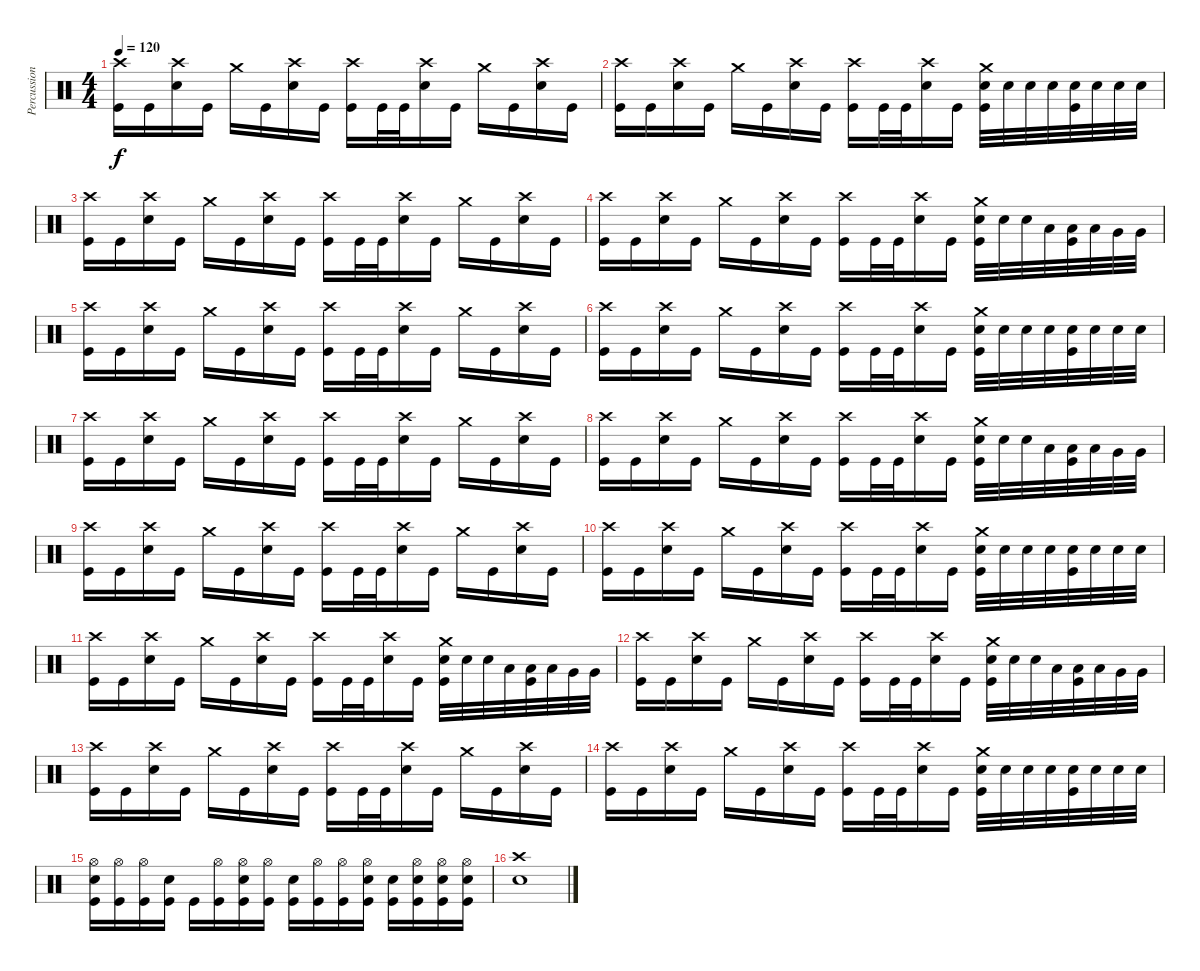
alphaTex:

\track ("Percussions" "Percussion") {instrument percussion}
\staff {score}
\articulation defaults
\ts (4 4)
\tempo 120
\clef neutral
\ks c
("Crash high (hit)" "Kick (hit)").16{dy f} "Kick (hit)".16 ("Crash high (hit)" "Electric Snare (hit)").16 "Kick (hit)".16 "Crash medium (hit)".16 "Kick (hit)".16 ("Crash high (hit)" "Electric Snare (hit)").16 "Kick (hit)".16 ("Crash high (hit)" "Kick (hit)").16 "Kick (hit)".32 "Kick (hit)".32 ("Crash high (hit)" "Electric Snare (hit)").16 "Kick (hit)".16 "Crash medium (hit)".16 "Kick (hit)".16 ("Crash high (hit)" "Electric Snare (hit)").16 "Kick (hit)".16 |
("Crash high (hit)" "Kick (hit)").16 "Kick (hit)".16 ("Crash high (hit)" "Electric Snare (hit)").16 "Kick (hit)".16 "Crash medium (hit)".16 "Kick (hit)".16 ("Crash high (hit)" "Electric Snare (hit)").16 "Kick (hit)".16 ("Crash high (hit)" "Kick (hit)").16 "Kick (hit)".32 "Kick (hit)".32 ("Crash high (hit)" "Electric Snare (hit)").16 "Kick (hit)".16 ("Crash medium (hit)" "Electric Snare (hit)" "Kick (hit)").32 "Electric Snare (hit)".32 "Electric Snare (hit)".32 "Electric Snare (hit)".32 ("Electric Snare (hit)" "Kick (hit)").32 "Electric Snare (hit)".32 "Electric Snare (hit)".32 "Electric Snare (hit)".32 |
("Crash high (hit)" "Kick (hit)").16 "Kick (hit)".16 ("Crash high (hit)" "Electric Snare (hit)").16 "Kick (hit)".16 "Crash medium (hit)".16 "Kick (hit)".16 ("Crash high (hit)" "Electric Snare (hit)").16 "Kick (hit)".16 ("Crash high (hit)" "Kick (hit)").16 "Kick (hit)".32 "Kick (hit)".32 ("Crash high (hit)" "Electric Snare (hit)").16 "Kick (hit)".16 "Crash medium (hit)".16 "Kick (hit)".16 ("Crash high (hit)" "Electric Snare (hit)").16 "Kick (hit)".16 |
("Crash high (hit)" "Kick (hit)").16 "Kick (hit)".16 ("Crash high (hit)" "Electric Snare (hit)").16 "Kick (hit)".16 "Crash medium (hit)".16 "Kick (hit)".16 ("Crash high (hit)" "Electric Snare (hit)").16 "Kick (hit)".16 ("Crash high (hit)" "Kick (hit)").16 "Kick (hit)".32 "Kick (hit)".32 ("Crash high (hit)" "Electric Snare (hit)").16 "Kick (hit)".16 ("Crash medium (hit)" "Electric Snare (hit)" "Kick (hit)").32 "Electric Snare (hit)".32 "Electric Snare (hit)".32 "Low Tom (hit)".32 ("Low Tom (hit)" "Kick (hit)").32 "Low Tom (hit)".32 "Very Low Tom (hit)".32 "Very Low Tom (hit)".32 |
("Crash high (hit)" "Kick (hit)").16 "Kick (hit)".16 ("Crash high (hit)" "Electric Snare (hit)").16 "Kick (hit)".16 "Crash medium (hit)".16 "Kick (hit)".16 ("Crash high (hit)" "Electric Snare (hit)").16 "Kick (hit)".16 ("Crash high (hit)" "Kick (hit)").16 "Kick (hit)".32 "Kick (hit)".32 ("Crash high (hit)" "Electric Snare (hit)").16 "Kick (hit)".16 "Crash medium (hit)".16 "Kick (hit)".16 ("Crash high (hit)" "Electric Snare (hit)").16 "Kick (hit)".16 |
("Crash high (hit)" "Kick (hit)").16 "Kick (hit)".16 ("Crash high (hit)" "Electric Snare (hit)").16 "Kick (hit)".16 "Crash medium (hit)".16 "Kick (hit)".16 ("Crash high (hit)" "Electric Snare (hit)").16 "Kick (hit)".16 ("Crash high (hit)" "Kick (hit)").16 "Kick (hit)".32 "Kick (hit)".32 ("Crash high (hit)" "Electric Snare (hit)").16 "Kick (hit)".16 ("Crash medium (hit)" "Electric Snare (hit)" "Kick (hit)").32 "Electric Snare (hit)".32 "Electric Snare (hit)".32 "Electric Snare (hit)".32 ("Electric Snare (hit)" "Kick (hit)").32 "Electric Snare (hit)".32 "Electric Snare (hit)".32 "Electric Snare (hit)".32 |
("Crash high (hit)" "Kick (hit)").16 "Kick (hit)".16 ("Crash high (hit)" "Electric Snare (hit)").16 "Kick (hit)".16 "Crash medium (hit)".16 "Kick (hit)".16 ("Crash high (hit)" "Electric Snare (hit)").16 "Kick (hit)".16 ("Crash high (hit)" "Kick (hit)").16 "Kick (hit)".32 "Kick (hit)".32 ("Crash high (hit)" "Electric Snare (hit)").16 "Kick (hit)".16 "Crash medium (hit)".16 "Kick (hit)".16 ("Crash high (hit)" "Electric Snare (hit)").16 "Kick (hit)".16 |
("Crash high (hit)" "Kick (hit)").16 "Kick (hit)".16 ("Crash high (hit)" "Electric Snare (hit)").16 "Kick (hit)".16 "Crash medium (hit)".16 "Kick (hit)".16 ("Crash high (hit)" "Electric Snare (hit)").16 "Kick (hit)".16 ("Crash high (hit)" "Kick (hit)").16 "Kick (hit)".32 "Kick (hit)".32 ("Crash high (hit)" "Electric Snare (hit)").16 "Kick (hit)".16 ("Crash medium (hit)" "Electric Snare (hit)" "Kick (hit)").32 "Electric Snare (hit)".32 "Electric Snare (hit)".32 "Low Tom (hit)".32 ("Low Tom (hit)" "Kick (hit)").32 "Low Tom (hit)".32 "Very Low Tom (hit)".32 "Very Low Tom (hit)".32 |
("Crash high (hit)" "Kick (hit)").16 "Kick (hit)".16 ("Crash high (hit)" "Electric Snare (hit)").16 "Kick (hit)".16 "Crash medium (hit)".16 "Kick (hit)".16 ("Crash high (hit)" "Electric Snare (hit)").16 "Kick (hit)".16 ("Crash high (hit)" "Kick (hit)").16 "Kick (hit)".32 "Kick (hit)".32 ("Crash high (hit)" "Electric Snare (hit)").16 "Kick (hit)".16 "Crash medium (hit)".16 "Kick (hit)".16 ("Crash high (hit)" "Electric Snare (hit)").16 "Kick (hit)".16 |
("Crash high (hit)" "Kick (hit)").16 "Kick (hit)".16 ("Crash high (hit)" "Electric Snare (hit)").16 "Kick (hit)".16 "Crash medium (hit)".16 "Kick (hit)".16 ("Crash high (hit)" "Electric Snare (hit)").16 "Kick (hit)".16 ("Crash high (hit)" "Kick (hit)").16 "Kick (hit)".32 "Kick (hit)".32 ("Crash high (hit)" "Electric Snare (hit)").16 "Kick (hit)".16 ("Crash medium (hit)" "Electric Snare (hit)" "Kick (hit)").32 "Electric Snare (hit)".32 "Electric Snare (hit)".32 "Electric Snare (hit)".32 ("Electric Snare (hit)" "Kick (hit)").32 "Electric Snare (hit)".32 "Electric Snare (hit)".32 "Electric Snare (hit)".32 |
("Crash high (hit)" "Kick (hit)").16 "Kick (hit)".16 ("Crash high (hit)" "Electric Snare (hit)").16 "Kick (hit)".16 "Crash medium (hit)".16 "Kick (hit)".16 ("Crash high (hit)" "Electric Snare (hit)").16 "Kick (hit)".16 ("Crash high (hit)" "Kick (hit)").16 "Kick (hit)".32 "Kick (hit)".32 ("Crash high (hit)" "Electric Snare (hit)").16 "Kick (hit)".16 ("Crash medium (hit)" "Electric Snare (hit)" "Kick (hit)").32 "Electric Snare (hit)".32 "Electric Snare (hit)".32 "Low Tom (hit)".32 ("Low Tom (hit)" "Kick (hit)").32 "Low Tom (hit)".32 "Very Low Tom (hit)".32 "Very Low Tom (hit)".32 |
("Crash high (hit)" "Kick (hit)").16 "Kick (hit)".16 ("Crash high (hit)" "Electric Snare (hit)").16 "Kick (hit)".16 "Crash medium (hit)".16 "Kick (hit)".16 ("Crash high (hit)" "Electric Snare (hit)").16 "Kick (hit)".16 ("Crash high (hit)" "Kick (hit)").16 "Kick (hit)".32 "Kick (hit)".32 ("Crash high (hit)" "Electric Snare (hit)").16 "Kick (hit)".16 ("Crash medium (hit)" "Electric Snare (hit)" "Kick (hit)").32 "Electric Snare (hit)".32 "Electric Snare (hit)".32 "Low Tom (hit)".32 ("Low Tom (hit)" "Kick (hit)").32 "Low Tom (hit)".32 "Very Low Tom (hit)".32 "Very Low Tom (hit)".32 |
("Crash high (hit)" "Kick (hit)").16 "Kick (hit)".16 ("Crash high (hit)" "Electric Snare (hit)").16 "Kick (hit)".16 "Crash medium (hit)".16 "Kick (hit)".16 ("Crash high (hit)" "Electric Snare (hit)").16 "Kick (hit)".16 ("Crash high (hit)" "Kick (hit)").16 "Kick (hit)".32 "Kick (hit)".32 ("Crash high (hit)" "Electric Snare (hit)").16 "Kick (hit)".16 "Crash medium (hit)".16 "Kick (hit)".16 ("Crash high (hit)" "Electric Snare (hit)").16 "Kick (hit)".16 |
("Crash high (hit)" "Kick (hit)").16 "Kick (hit)".16 ("Crash high (hit)" "Electric Snare (hit)").16 "Kick (hit)".16 "Crash medium (hit)".16 "Kick (hit)".16 ("Crash high (hit)" "Electric Snare (hit)").16 "Kick (hit)".16 ("Crash high (hit)" "Kick (hit)").16 "Kick (hit)".32 "Kick (hit)".32 ("Crash high (hit)" "Electric Snare (hit)").16 "Kick (hit)".16 ("Crash medium (hit)" "Electric Snare (hit)" "Kick (hit)").32 "Electric Snare (hit)".32 "Electric Snare (hit)".32 "Electric Snare (hit)".32 ("Electric Snare (hit)" "Kick (hit)").32 "Electric Snare (hit)".32 "Electric Snare (hit)".32 "Electric Snare (hit)".32 |
("Hi-Hat (open)" "Kick (hit)" "Electric Snare (hit)").16 ("Hi-Hat (open)" "Kick (hit)").16 ("Hi-Hat (open)" "Kick (hit)").16 ("Kick (hit)" "Electric Snare (hit)").16 "Kick (hit)".16 ("Hi-Hat (open)" "Kick (hit)").16 ("Hi-Hat (open)" "Kick (hit)" "Electric Snare (hit)").16 ("Hi-Hat (open)" "Kick (hit)").16 ("Kick (hit)" "Electric Snare (hit)").16 ("Hi-Hat (open)" "Kick (hit)").16 ("Hi-Hat (open)" "Kick (hit)").16 ("Hi-Hat (open)" "Kick (hit)" "Electric Snare (hit)").16 ("Kick (hit)" "Electric Snare (hit)").16 ("Hi-Hat (open)" "Kick (hit)" "Electric Snare (hit)").16 ("Hi-Hat (open)" "Kick (hit)" "Electric Snare (hit)").16 ("Hi-Hat (open)" "Kick (hit)" "Electric Snare (hit)").16 |
("Crash high (hit)" "Electric Snare (hit)").1
